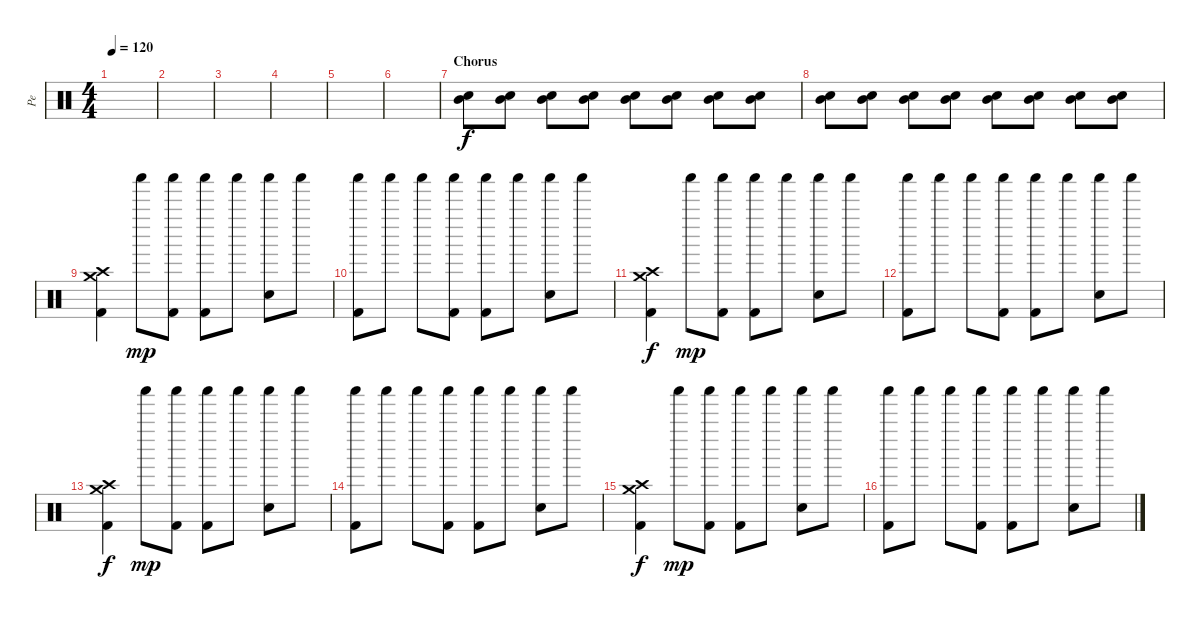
\track ("Pe" "Pe") {instrument percussion}
\staff {score}
\articulation defaults
\ts (4 4)
\tempo 120
\clef neutral
\ks c
|
|
|
|
|
|
\section ("" "Chorus")
("Mid Tom (hit)" "Snare (hit) 2").8 ("Mid Tom (hit)" "Snare (hit) 2").8 ("Mid Tom (hit)" "Snare (hit) 2").8 ("Mid Tom (hit)" "Snare (hit) 2").8 ("Mid Tom (hit)" "Snare (hit) 2").8 ("Mid Tom (hit)" "Snare (hit) 2").8 ("Mid Tom (hit)" "Snare (hit) 2").8 ("Mid Tom (hit)" "Snare (hit) 2").8 |
("Mid Tom (hit)" "Snare (hit) 2").8 ("Mid Tom (hit)" "Snare (hit) 2").8 ("Mid Tom (hit)" "Snare (hit) 2").8 ("Mid Tom (hit)" "Snare (hit) 2").8 ("Mid Tom (hit)" "Snare (hit) 2").8 ("Mid Tom (hit)" "Snare (hit) 2").8 ("Mid Tom (hit)" "Snare (hit) 2").8 ("Mid Tom (hit)" "Snare (hit) 2").8 |
("Crash high (hit)" "Crash medium (hit)" "Kick (hit) 2").4 "Shaker (hit)".8{dy mp} ("Shaker (hit)" "Kick (hit) 2").8 ("Shaker (hit)" "Kick (hit) 2").8 "Shaker (hit)".8 ("Shaker (hit)" "Electric Snare (hit)").8 "Shaker (hit)".8 |
("Shaker (hit)" "Kick (hit) 2").8 "Shaker (hit)".8 "Shaker (hit)".8 ("Shaker (hit)" "Kick (hit) 2").8 ("Shaker (hit)" "Kick (hit) 2").8 "Shaker (hit)".8 ("Shaker (hit)" "Electric Snare (hit)").8 "Shaker (hit)".8 |
("Crash high (hit)" "Crash medium (hit)" "Kick (hit) 2").4{dy f} "Shaker (hit)".8{dy mp} ("Shaker (hit)" "Kick (hit) 2").8 ("Shaker (hit)" "Kick (hit) 2").8 "Shaker (hit)".8 ("Shaker (hit)" "Electric Snare (hit)").8 "Shaker (hit)".8 |
("Shaker (hit)" "Kick (hit) 2").8 "Shaker (hit)".8 "Shaker (hit)".8 ("Shaker (hit)" "Kick (hit) 2").8 ("Shaker (hit)" "Kick (hit) 2").8 "Shaker (hit)".8 ("Shaker (hit)" "Electric Snare (hit)").8 "Shaker (hit)".8 |
("Crash high (hit)" "Crash medium (hit)" "Kick (hit) 2").4{dy f} "Shaker (hit)".8{dy mp} ("Shaker (hit)" "Kick (hit) 2").8 ("Shaker (hit)" "Kick (hit) 2").8 "Shaker (hit)".8 ("Shaker (hit)" "Electric Snare (hit)").8 "Shaker (hit)".8 |
("Shaker (hit)" "Kick (hit) 2").8 "Shaker (hit)".8 "Shaker (hit)".8 ("Shaker (hit)" "Kick (hit) 2").8 ("Shaker (hit)" "Kick (hit) 2").8 "Shaker (hit)".8 ("Shaker (hit)" "Electric Snare (hit)").8 "Shaker (hit)".8 |
("Crash high (hit)" "Crash medium (hit)" "Kick (hit) 2").4{dy f} "Shaker (hit)".8{dy mp} ("Shaker (hit)" "Kick (hit) 2").8 ("Shaker (hit)" "Kick (hit) 2").8 "Shaker (hit)".8 ("Shaker (hit)" "Electric Snare (hit)").8 "Shaker (hit)".8 |
("Shaker (hit)" "Kick (hit) 2").8 "Shaker (hit)".8 "Shaker (hit)".8 ("Shaker (hit)" "Kick (hit) 2").8 ("Shaker (hit)" "Kick (hit) 2").8 "Shaker (hit)".8 ("Shaker (hit)" "Electric Snare (hit)").8 "Shaker (hit)".8
